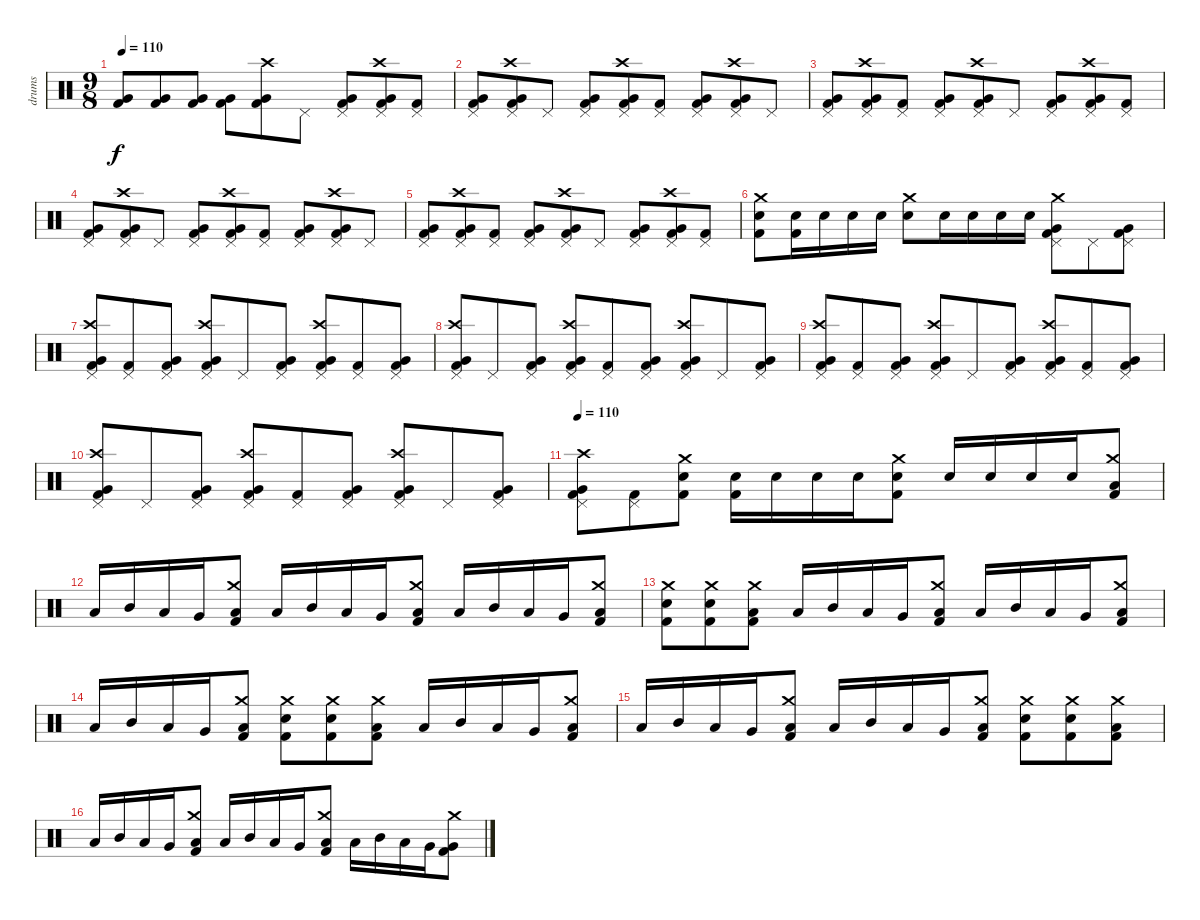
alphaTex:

\track ("drums" "drums") {instrument percussion}
\staff {score}
\articulation defaults
\ts (9 8)
\tempo 110
\clef neutral
\ks c
("Very Low Tom (hit)" "Kick (hit) 2").8{dy f} ("Very Low Tom (hit)" "Kick (hit) 2").8 ("Very Low Tom (hit)" "Kick (hit) 2").8 ("Very Low Tom (hit)" "Kick (hit) 2").8 ("Very Low Tom (hit)" "Crash high (hit)" "Kick (hit) 2").8 "Pedal Hi-Hat (hit)".8 ("Very Low Tom (hit)" "Pedal Hi-Hat (hit)" "Kick (hit) 2").8 ("Very Low Tom (hit)" "Crash high (hit)" "Pedal Hi-Hat (hit)" "Kick (hit) 2").8 ("Pedal Hi-Hat (hit)" "Kick (hit) 2").8 |
("Very Low Tom (hit)" "Pedal Hi-Hat (hit)" "Kick (hit) 2").8 ("Very Low Tom (hit)" "Crash high (hit)" "Pedal Hi-Hat (hit)" "Kick (hit) 2").8 "Pedal Hi-Hat (hit)".8 ("Very Low Tom (hit)" "Pedal Hi-Hat (hit)" "Kick (hit) 2").8 ("Very Low Tom (hit)" "Crash high (hit)" "Pedal Hi-Hat (hit)" "Kick (hit) 2").8 ("Pedal Hi-Hat (hit)" "Kick (hit) 2").8 ("Very Low Tom (hit)" "Pedal Hi-Hat (hit)" "Kick (hit) 2").8 ("Very Low Tom (hit)" "Crash high (hit)" "Pedal Hi-Hat (hit)" "Kick (hit) 2").8 "Pedal Hi-Hat (hit)".8 |
("Very Low Tom (hit)" "Pedal Hi-Hat (hit)" "Kick (hit) 2").8 ("Very Low Tom (hit)" "Crash high (hit)" "Pedal Hi-Hat (hit)" "Kick (hit) 2").8 ("Pedal Hi-Hat (hit)" "Kick (hit) 2").8 ("Very Low Tom (hit)" "Pedal Hi-Hat (hit)" "Kick (hit) 2").8 ("Very Low Tom (hit)" "Crash high (hit)" "Pedal Hi-Hat (hit)" "Kick (hit) 2").8 "Pedal Hi-Hat (hit)".8 ("Very Low Tom (hit)" "Pedal Hi-Hat (hit)" "Kick (hit) 2").8 ("Very Low Tom (hit)" "Crash high (hit)" "Pedal Hi-Hat (hit)" "Kick (hit) 2").8 ("Pedal Hi-Hat (hit)" "Kick (hit) 2").8 |
("Very Low Tom (hit)" "Pedal Hi-Hat (hit)" "Kick (hit) 2").8 ("Very Low Tom (hit)" "Crash high (hit)" "Pedal Hi-Hat (hit)" "Kick (hit) 2").8 "Pedal Hi-Hat (hit)".8 ("Very Low Tom (hit)" "Pedal Hi-Hat (hit)" "Kick (hit) 2").8 ("Very Low Tom (hit)" "Crash high (hit)" "Pedal Hi-Hat (hit)" "Kick (hit) 2").8 ("Pedal Hi-Hat (hit)" "Kick (hit) 2").8 ("Very Low Tom (hit)" "Pedal Hi-Hat (hit)" "Kick (hit) 2").8 ("Very Low Tom (hit)" "Crash high (hit)" "Pedal Hi-Hat (hit)" "Kick (hit) 2").8 "Pedal Hi-Hat (hit)".8 |
("Very Low Tom (hit)" "Pedal Hi-Hat (hit)" "Kick (hit) 2").8 ("Very Low Tom (hit)" "Crash high (hit)" "Pedal Hi-Hat (hit)" "Kick (hit) 2").8 ("Pedal Hi-Hat (hit)" "Kick (hit) 2").8 ("Very Low Tom (hit)" "Pedal Hi-Hat (hit)" "Kick (hit) 2").8 ("Very Low Tom (hit)" "Crash high (hit)" "Pedal Hi-Hat (hit)" "Kick (hit) 2").8 "Pedal Hi-Hat (hit)".8 ("Very Low Tom (hit)" "Pedal Hi-Hat (hit)" "Kick (hit) 2").8 ("Very Low Tom (hit)" "Crash high (hit)" "Pedal Hi-Hat (hit)" "Kick (hit) 2").8 ("Pedal Hi-Hat (hit)" "Kick (hit) 2").8 |
("Electric Snare (hit)" "Crash medium (hit)" "Kick (hit) 2").8 ("Electric Snare (hit)" "Kick (hit) 2").16 "Electric Snare (hit)".16 "Electric Snare (hit)".16 "Electric Snare (hit)".16 ("Electric Snare (hit)" "Crash medium (hit)").8 "Electric Snare (hit)".16 "Electric Snare (hit)".16 "Electric Snare (hit)".16 "Electric Snare (hit)".16 ("Very Low Tom (hit)" "Crash medium (hit)" "Pedal Hi-Hat (hit)" "Kick (hit) 2").8 "Pedal Hi-Hat (hit)".8 ("Very Low Tom (hit)" "Pedal Hi-Hat (hit)" "Kick (hit) 2").8 |
("Very Low Tom (hit)" "Crash high (hit)" "Pedal Hi-Hat (hit)" "Kick (hit) 2").8 ("Pedal Hi-Hat (hit)" "Kick (hit) 2").8 ("Very Low Tom (hit)" "Pedal Hi-Hat (hit)" "Kick (hit) 2").8 ("Very Low Tom (hit)" "Crash high (hit)" "Pedal Hi-Hat (hit)" "Kick (hit) 2").8 "Pedal Hi-Hat (hit)".8 ("Very Low Tom (hit)" "Pedal Hi-Hat (hit)" "Kick (hit) 2").8 ("Very Low Tom (hit)" "Crash high (hit)" "Pedal Hi-Hat (hit)" "Kick (hit) 2").8 ("Pedal Hi-Hat (hit)" "Kick (hit) 2").8 ("Very Low Tom (hit)" "Pedal Hi-Hat (hit)" "Kick (hit) 2").8 |
("Very Low Tom (hit)" "Crash high (hit)" "Pedal Hi-Hat (hit)" "Kick (hit) 2").8 "Pedal Hi-Hat (hit)".8 ("Very Low Tom (hit)" "Pedal Hi-Hat (hit)" "Kick (hit) 2").8 ("Very Low Tom (hit)" "Crash high (hit)" "Pedal Hi-Hat (hit)" "Kick (hit) 2").8 ("Pedal Hi-Hat (hit)" "Kick (hit) 2").8 ("Very Low Tom (hit)" "Pedal Hi-Hat (hit)" "Kick (hit) 2").8 ("Very Low Tom (hit)" "Crash high (hit)" "Pedal Hi-Hat (hit)" "Kick (hit) 2").8 "Pedal Hi-Hat (hit)".8 ("Very Low Tom (hit)" "Pedal Hi-Hat (hit)" "Kick (hit) 2").8 |
("Very Low Tom (hit)" "Crash high (hit)" "Pedal Hi-Hat (hit)" "Kick (hit) 2").8 ("Pedal Hi-Hat (hit)" "Kick (hit) 2").8 ("Very Low Tom (hit)" "Pedal Hi-Hat (hit)" "Kick (hit) 2").8 ("Very Low Tom (hit)" "Crash high (hit)" "Pedal Hi-Hat (hit)" "Kick (hit) 2").8 "Pedal Hi-Hat (hit)".8 ("Very Low Tom (hit)" "Pedal Hi-Hat (hit)" "Kick (hit) 2").8 ("Very Low Tom (hit)" "Crash high (hit)" "Pedal Hi-Hat (hit)" "Kick (hit) 2").8 ("Pedal Hi-Hat (hit)" "Kick (hit) 2").8 ("Very Low Tom (hit)" "Pedal Hi-Hat (hit)" "Kick (hit) 2").8 |
("Very Low Tom (hit)" "Crash high (hit)" "Pedal Hi-Hat (hit)" "Kick (hit) 2").8 "Pedal Hi-Hat (hit)".8 ("Very Low Tom (hit)" "Pedal Hi-Hat (hit)" "Kick (hit) 2").8 ("Very Low Tom (hit)" "Crash high (hit)" "Pedal Hi-Hat (hit)" "Kick (hit) 2").8 ("Pedal Hi-Hat (hit)" "Kick (hit) 2").8 ("Very Low Tom (hit)" "Pedal Hi-Hat (hit)" "Kick (hit) 2").8 ("Very Low Tom (hit)" "Crash high (hit)" "Pedal Hi-Hat (hit)" "Kick (hit) 2").8 "Pedal Hi-Hat (hit)".8 ("Very Low Tom (hit)" "Pedal Hi-Hat (hit)" "Kick (hit) 2").8 |
\tempo 110
("Very Low Tom (hit)" "Crash high (hit)" "Pedal Hi-Hat (hit)" "Kick (hit) 2").8 ("Pedal Hi-Hat (hit)" "Kick (hit) 2").8 ("Electric Snare (hit)" "Crash medium (hit)" "Kick (hit) 2").8 ("Electric Snare (hit)" "Kick (hit) 2").16 "Electric Snare (hit)".16 "Electric Snare (hit)".16 "Electric Snare (hit)".16 ("Electric Snare (hit)" "Crash medium (hit)" "Kick (hit) 2").8 "Electric Snare (hit)".16 "Electric Snare (hit)".16 "Electric Snare (hit)".16 "Electric Snare (hit)".16 ("Low Floor Tom (hit)" "Crash medium (hit)" "Kick (hit) 2").8 |
"Low Tom (hit)".16 "Mid Tom (hit)".16 "Low Tom (hit)".16 "Very Low Tom (hit)".16 ("Low Floor Tom (hit)" "Crash medium (hit)" "Kick (hit) 2").8 "Low Tom (hit)".16 "Mid Tom (hit)".16 "Low Tom (hit)".16 "Very Low Tom (hit)".16 ("Low Floor Tom (hit)" "Crash medium (hit)" "Kick (hit) 2").8 "Low Tom (hit)".16 "Mid Tom (hit)".16 "Low Tom (hit)".16 "Very Low Tom (hit)".16 ("Low Floor Tom (hit)" "Crash medium (hit)" "Kick (hit) 2").8 |
("Electric Snare (hit)" "Crash medium (hit)" "Kick (hit) 2").8 ("Electric Snare (hit)" "Crash medium (hit)" "Kick (hit) 2").8 ("Low Floor Tom (hit)" "Crash medium (hit)" "Kick (hit) 2").8 "Low Tom (hit)".16 "Mid Tom (hit)".16 "Low Tom (hit)".16 "Very Low Tom (hit)".16 ("Low Floor Tom (hit)" "Crash medium (hit)" "Kick (hit) 2").8 "Low Tom (hit)".16 "Mid Tom (hit)".16 "Low Tom (hit)".16 "Very Low Tom (hit)".16 ("Low Floor Tom (hit)" "Crash medium (hit)" "Kick (hit) 2").8 |
"Low Tom (hit)".16 "Mid Tom (hit)".16 "Low Tom (hit)".16 "Very Low Tom (hit)".16 ("Low Floor Tom (hit)" "Crash medium (hit)" "Kick (hit) 2").8 ("Electric Snare (hit)" "Crash medium (hit)" "Kick (hit) 2").8 ("Electric Snare (hit)" "Crash medium (hit)" "Kick (hit) 2").8 ("Low Floor Tom (hit)" "Crash medium (hit)" "Kick (hit) 2").8 "Low Tom (hit)".16 "Mid Tom (hit)".16 "Low Tom (hit)".16 "Very Low Tom (hit)".16 ("Low Floor Tom (hit)" "Crash medium (hit)" "Kick (hit) 2").8 |
"Low Tom (hit)".16 "Mid Tom (hit)".16 "Low Tom (hit)".16 "Very Low Tom (hit)".16 ("Low Floor Tom (hit)" "Crash medium (hit)" "Kick (hit) 2").8 "Low Tom (hit)".16 "Mid Tom (hit)".16 "Low Tom (hit)".16 "Very Low Tom (hit)".16 ("Low Floor Tom (hit)" "Crash medium (hit)" "Kick (hit) 2").8 ("Electric Snare (hit)" "Crash medium (hit)" "Kick (hit) 2").8 ("Electric Snare (hit)" "Crash medium (hit)" "Kick (hit) 2").8 ("Low Floor Tom (hit)" "Crash medium (hit)" "Kick (hit) 2").8 |
"Low Tom (hit)".16 "Mid Tom (hit)".16 "Low Tom (hit)".16 "Very Low Tom (hit)".16 ("Low Floor Tom (hit)" "Crash medium (hit)" "Kick (hit) 2").8 "Low Tom (hit)".16 "Mid Tom (hit)".16 "Low Tom (hit)".16 "Very Low Tom (hit)".16 ("Low Floor Tom (hit)" "Crash medium (hit)" "Kick (hit) 2").8 "Low Tom (hit)".16 "Mid Tom (hit)".16 "Low Tom (hit)".16 "Very Low Tom (hit)".16 ("Very Low Tom (hit)" "Crash medium (hit)" "Kick (hit) 2").8
